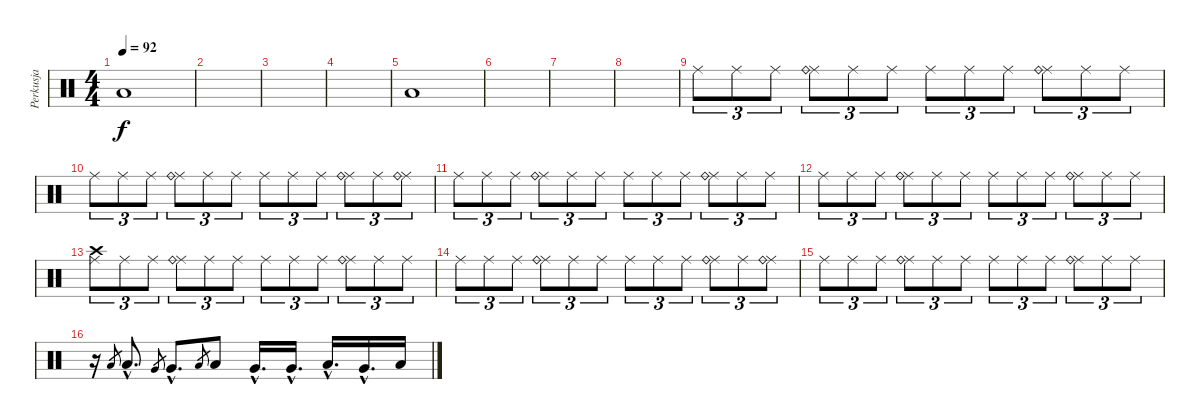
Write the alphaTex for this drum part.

\track ("Perkusja" "Perkusja") {instrument percussion}
\staff {score}
\articulation defaults
\ts (4 4)
\tempo 92
\clef neutral
\ks c "Low Floor Tom (hit)".1{dy f}
|
|
|
|
"Low Floor Tom (hit)".1 |
|
|
|
"Ride (middle)".8{tu (3 2)} "Ride (middle)".8{tu (3 2)} "Ride (middle)".8{tu (3 2)} ("Ride (middle)" "Ride (bell)").8{tu (3 2)} "Ride (middle)".8{tu (3 2)} "Ride (middle)".8{tu (3 2)} "Ride (middle)".8{tu (3 2)} "Ride (middle)".8{tu (3 2)} "Ride (middle)".8{tu (3 2)} ("Ride (middle)" "Ride (bell)").8{tu (3 2)} "Ride (middle)".8{tu (3 2)} "Ride (middle)".8{tu (3 2)} |
"Ride (middle)".8{tu (3 2)} "Ride (middle)".8{tu (3 2)} "Ride (middle)".8{tu (3 2)} ("Ride (middle)" "Ride (bell)").8{tu (3 2)} "Ride (middle)".8{tu (3 2)} "Ride (middle)".8{tu (3 2)} "Ride (middle)".8{tu (3 2)} "Ride (middle)".8{tu (3 2)} "Ride (middle)".8{tu (3 2)} ("Ride (middle)" "Ride (bell)").8{tu (3 2)} "Ride (middle)".8{tu (3 2)} ("Ride (middle)" "Ride (bell)").8{tu (3 2)} |
"Ride (middle)".8{tu (3 2)} "Ride (middle)".8{tu (3 2)} "Ride (middle)".8{tu (3 2)} ("Ride (middle)" "Ride (bell)").8{tu (3 2)} "Ride (middle)".8{tu (3 2)} "Ride (middle)".8{tu (3 2)} "Ride (middle)".8{tu (3 2)} "Ride (middle)".8{tu (3 2)} "Ride (middle)".8{tu (3 2)} ("Ride (middle)" "Ride (bell)").8{tu (3 2)} "Ride (middle)".8{tu (3 2)} "Ride (middle)".8{tu (3 2)} |
"Ride (middle)".8{tu (3 2)} "Ride (middle)".8{tu (3 2)} "Ride (middle)".8{tu (3 2)} ("Ride (middle)" "Ride (bell)").8{tu (3 2)} "Ride (middle)".8{tu (3 2)} "Ride (middle)".8{tu (3 2)} "Ride (middle)".8{tu (3 2)} "Ride (middle)".8{tu (3 2)} "Ride (middle)".8{tu (3 2)} ("Ride (middle)" "Ride (bell)").8{tu (3 2)} "Ride (middle)".8{tu (3 2)} "Ride (middle)".8{tu (3 2)} |
("Ride (middle)" "Crash high (hit)").8{tu (3 2)} "Ride (middle)".8{tu (3 2)} "Ride (middle)".8{tu (3 2)} ("Ride (middle)" "Ride (bell)").8{tu (3 2)} "Ride (middle)".8{tu (3 2)} "Ride (middle)".8{tu (3 2)} "Ride (middle)".8{tu (3 2)} "Ride (middle)".8{tu (3 2)} "Ride (middle)".8{tu (3 2)} ("Ride (middle)" "Ride (bell)").8{tu (3 2)} "Ride (middle)".8{tu (3 2)} "Ride (middle)".8{tu (3 2)} |
"Ride (middle)".8{tu (3 2)} "Ride (middle)".8{tu (3 2)} "Ride (middle)".8{tu (3 2)} ("Ride (middle)" "Ride (bell)").8{tu (3 2)} "Ride (middle)".8{tu (3 2)} "Ride (middle)".8{tu (3 2)} "Ride (middle)".8{tu (3 2)} "Ride (middle)".8{tu (3 2)} "Ride (middle)".8{tu (3 2)} ("Ride (middle)" "Ride (bell)").8{tu (3 2)} "Ride (middle)".8{tu (3 2)} ("Ride (middle)" "Ride (bell)").8{tu (3 2)} |
"Ride (middle)".8{tu (3 2)} "Ride (middle)".8{tu (3 2)} "Ride (middle)".8{tu (3 2)} ("Ride (middle)" "Ride (bell)").8{tu (3 2)} "Ride (middle)".8{tu (3 2)} "Ride (middle)".8{tu (3 2)} "Ride (middle)".8{tu (3 2)} "Ride (middle)".8{tu (3 2)} "Ride (middle)".8{tu (3 2)} ("Ride (middle)" "Ride (bell)").8{tu (3 2)} "Ride (middle)".8{tu (3 2)} "Ride (middle)".8{tu (3 2)} |
r.16 "Low Tom (hit)".8{gr} "Low Tom (hit)"{hac}.8{d} "Very Low Tom (hit)".8{gr} "Very Low Tom (hit)"{hac}.8{d} "Low Floor Tom (hit)".8{gr} "Low Floor Tom (hit)".8 "Very Low Tom (hit)"{hac}.16{d} "Very Low Tom (hit)"{hac}.16{d} "Low Tom (hit)"{hac}.16{d} "Very Low Tom (hit)"{hac}.16{d} "Low Floor Tom (hit)".16
